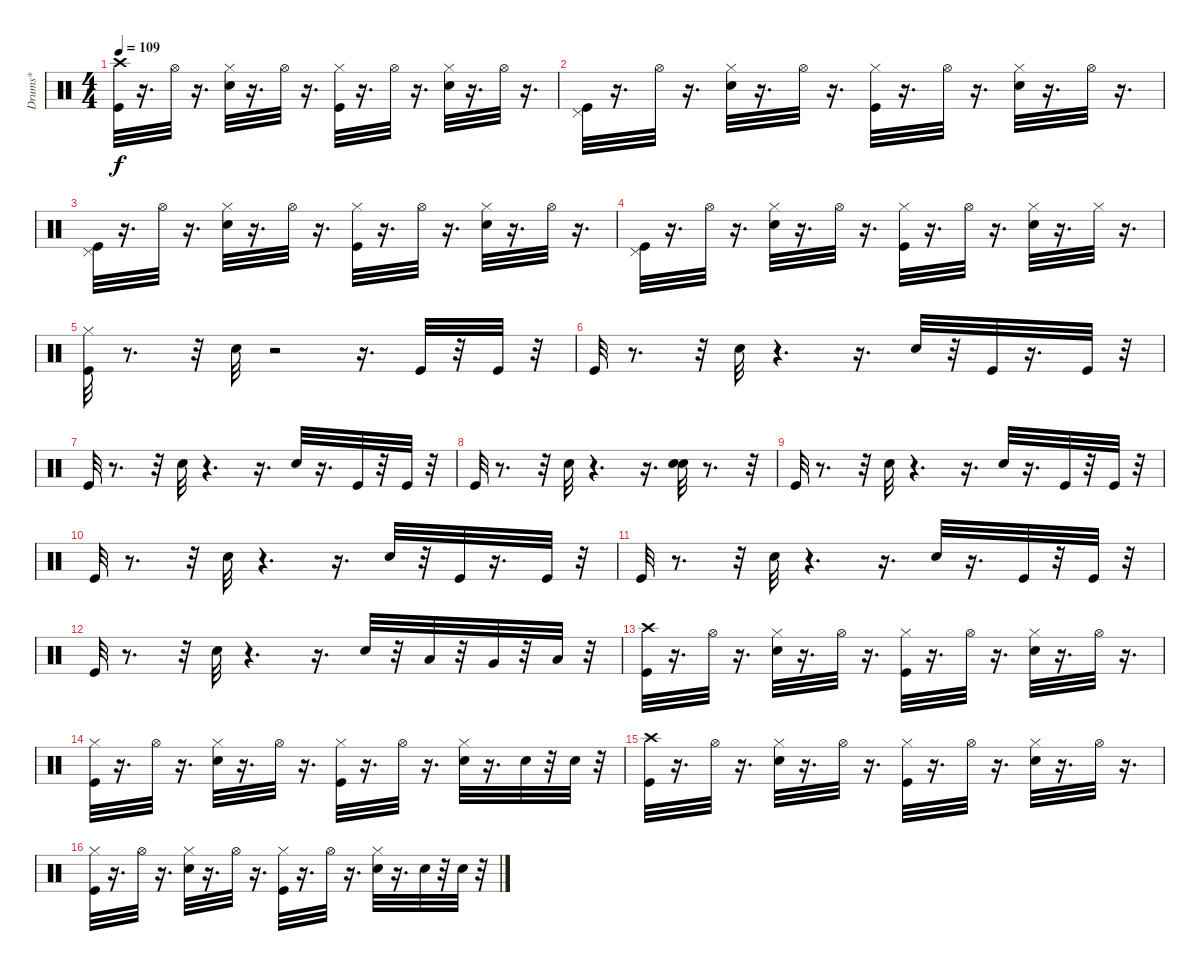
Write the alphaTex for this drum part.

\track ("Drums*" "Drums*") {instrument percussion}
\staff {score}
\articulation defaults
\ts (4 4)
\tempo 109
\clef neutral
\ks c
("Crash high (hit)" "Kick (hit)").32{dy f} r.16{d} "Hi-Hat (open)".32 r.16{d} ("Hi-Hat (closed)" "Snare (hit) 2").32 r.16{d} "Hi-Hat (open)".32 r.16{d} ("Hi-Hat (closed)" "Kick (hit)").32 r.16{d} "Hi-Hat (open)".32 r.16{d} ("Hi-Hat (closed)" "Snare (hit) 2").32 r.16{d} "Hi-Hat (open)".32 r.16{d} |
("Pedal Hi-Hat (hit)" "Kick (hit)").32 r.16{d} "Hi-Hat (open)".32 r.16{d} ("Hi-Hat (closed)" "Snare (hit) 2").32 r.16{d} "Hi-Hat (open)".32 r.16{d} ("Hi-Hat (closed)" "Kick (hit)").32 r.16{d} "Hi-Hat (open)".32 r.16{d} ("Hi-Hat (closed)" "Snare (hit) 2").32 r.16{d} "Hi-Hat (open)".32 r.16{d} |
("Pedal Hi-Hat (hit)" "Kick (hit)").32 r.16{d} "Hi-Hat (open)".32 r.16{d} ("Hi-Hat (closed)" "Snare (hit) 2").32 r.16{d} "Hi-Hat (open)".32 r.16{d} ("Hi-Hat (closed)" "Kick (hit)").32 r.16{d} "Hi-Hat (open)".32 r.16{d} ("Hi-Hat (closed)" "Snare (hit) 2").32 r.16{d} "Hi-Hat (open)".32 r.16{d} |
("Pedal Hi-Hat (hit)" "Kick (hit)").32 r.16{d} "Hi-Hat (open)".32 r.16{d} ("Hi-Hat (closed)" "Snare (hit) 2").32 r.16{d} "Hi-Hat (open)".32 r.16{d} ("Hi-Hat (closed)" "Kick (hit)").32 r.16{d} "Hi-Hat (open)".32 r.16{d} ("Hi-Hat (closed)" "Snare (hit) 2").32 r.16{d} "Hi-Hat (closed)".32 r.16{d} |
("Hi-Hat (closed)" "Kick (hit)").32 r.8{d} r.32 "Snare (hit) 2".32 r.2 r.16{d} "Kick (hit)".32 r.32 "Kick (hit)".32 r.32 |
"Kick (hit)".32 r.8{d} r.32 "Snare (hit) 2".32 r.4{d} r.16{d} "Snare (hit) 2".32 r.32 "Kick (hit)".32 r.16{d} "Kick (hit)".32 r.32 |
"Kick (hit)".32 r.8{d} r.32 "Snare (hit) 2".32 r.4{d} r.16{d} "Snare (hit) 2".32 r.16{d} "Kick (hit)".32 r.32 "Kick (hit)".32 r.32 |
"Kick (hit)".32 r.8{d} r.32 "Snare (hit) 2".32 r.4{d} r.16{d} ("Electric Snare (hit)" "Snare (hit) 2").32 r.8{d} r.32 |
"Kick (hit)".32 r.8{d} r.32 "Snare (hit) 2".32 r.4{d} r.16{d} "Snare (hit) 2".32 r.16{d} "Kick (hit)".32 r.32 "Kick (hit)".32 r.32 |
"Kick (hit)".32 r.8{d} r.32 "Snare (hit) 2".32 r.4{d} r.16{d} "Snare (hit) 2".32 r.32 "Kick (hit)".32 r.16{d} "Kick (hit)".32 r.32 |
"Kick (hit)".32 r.8{d} r.32 "Snare (hit) 2".32 r.4{d} r.16{d} "Snare (hit) 2".32 r.16{d} "Kick (hit)".32 r.32 "Kick (hit)".32 r.32 |
"Kick (hit)".32 r.8{d} r.32 "Snare (hit) 2".32 r.4{d} r.16{d} "Electric Snare (hit)".32 r.32 "Low Tom (hit)".32 r.32 "Very Low Tom (hit)".32 r.32 "Low Floor Tom (hit)".32 r.32 |
("Crash high (hit)" "Kick (hit)").32 r.16{d} "Hi-Hat (open)".32 r.16{d} ("Hi-Hat (closed)" "Snare (hit) 2").32 r.16{d} "Hi-Hat (open)".32 r.16{d} ("Hi-Hat (closed)" "Kick (hit)").32 r.16{d} "Hi-Hat (open)".32 r.16{d} ("Hi-Hat (closed)" "Snare (hit) 2").32 r.16{d} "Hi-Hat (open)".32 r.16{d} |
("Hi-Hat (closed)" "Kick (hit)").32 r.16{d} "Hi-Hat (open)".32 r.16{d} ("Hi-Hat (closed)" "Snare (hit) 2").32 r.16{d} "Hi-Hat (open)".32 r.16{d} ("Hi-Hat (closed)" "Kick (hit)").32 r.16{d} "Hi-Hat (open)".32 r.16{d} ("Hi-Hat (closed)" "Snare (hit) 2").32 r.16{d} "Snare (hit) 2".32 r.32 "Snare (hit) 2".32 r.32 |
("Crash high (hit)" "Kick (hit)").32 r.16{d} "Hi-Hat (open)".32 r.16{d} ("Hi-Hat (closed)" "Snare (hit) 2").32 r.16{d} "Hi-Hat (open)".32 r.16{d} ("Hi-Hat (closed)" "Kick (hit)").32 r.16{d} "Hi-Hat (open)".32 r.16{d} ("Hi-Hat (closed)" "Snare (hit) 2").32 r.16{d} "Hi-Hat (open)".32 r.16{d} |
("Hi-Hat (closed)" "Kick (hit)").32 r.16{d} "Hi-Hat (open)".32 r.16{d} ("Hi-Hat (closed)" "Snare (hit) 2").32 r.16{d} "Hi-Hat (open)".32 r.16{d} ("Hi-Hat (closed)" "Kick (hit)").32 r.16{d} "Hi-Hat (open)".32 r.16{d} ("Hi-Hat (closed)" "Snare (hit) 2").32 r.16{d} "Snare (hit) 2".32 r.32 "Snare (hit) 2".32 r.32
